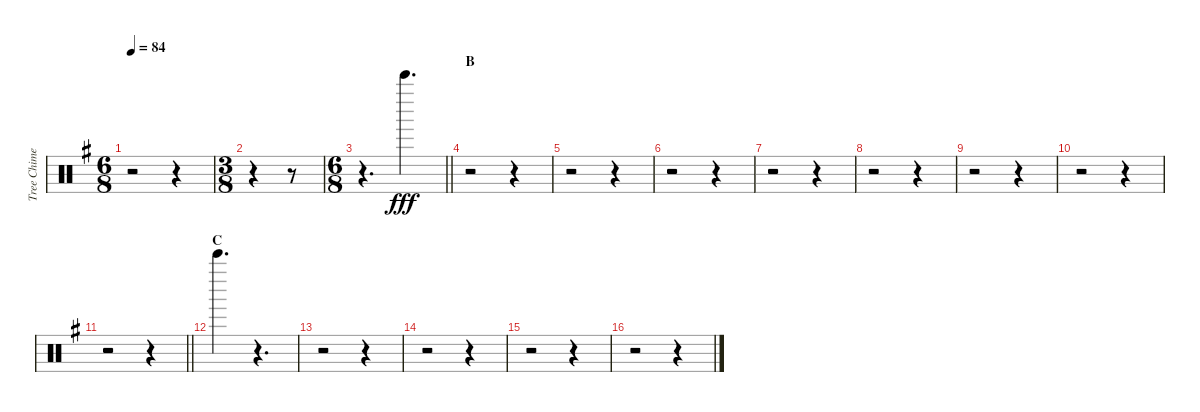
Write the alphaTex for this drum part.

\track ("Tree Chime" "Tree Chime") {instrument percussion}
\staff {score}
\articulation defaults
\ts (6 8)
\tempo 84
\clef neutral
\ks g
r.2{dy fff} r.4 |
\ts (3 8)
r.4 r.8 |
\ts (6 8)
\barLineRight lightlight
r.4{d} "Bell Tree (hit)".4{d} |
\section ("" "B")
r.2 r.4 |
r.2 r.4 |
r.2 r.4 |
r.2 r.4 |
r.2 r.4 |
r.2 r.4 |
r.2 r.4 |
\barLineRight lightlight
r.2 r.4 |
\section ("" "C")
"Bell Tree (hit)".4{d} r.4{d} |
r.2 r.4 |
r.2 r.4 |
r.2 r.4 |
r.2 r.4
